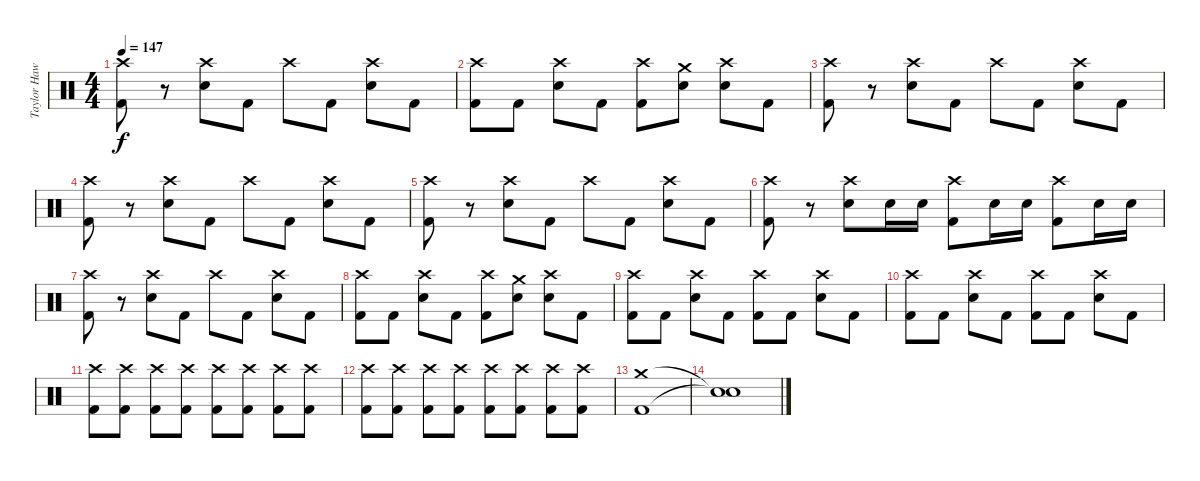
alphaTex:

\track ("Taylor Hawkins - Drums" "Taylor Haw") {instrument percussion}
\staff {score}
\articulation defaults
\ts (4 4)
\tempo 147
\clef neutral
\ks c
("Crash high (hit)" "Kick (hit) 2").8{dy f} r.8 ("Crash high (hit)" "Snare (hit) 2").8 "Kick (hit) 2".8 "Crash high (hit)".8 "Kick (hit) 2".8 ("Crash high (hit)" "Snare (hit) 2").8 "Kick (hit) 2".8 |
("Crash high (hit)" "Kick (hit) 2").8 "Kick (hit) 2".8 ("Crash high (hit)" "Snare (hit) 2").8 "Kick (hit) 2".8 ("Crash high (hit)" "Kick (hit) 2").8 ("Crash medium (hit)" "Snare (hit) 2").8 ("Crash high (hit)" "Snare (hit) 2").8 "Kick (hit) 2".8 |
("Crash high (hit)" "Kick (hit) 2").8 r.8 ("Crash high (hit)" "Snare (hit) 2").8 "Kick (hit) 2".8 "Crash high (hit)".8 "Kick (hit) 2".8 ("Crash high (hit)" "Snare (hit) 2").8 "Kick (hit) 2".8 |
("Crash high (hit)" "Kick (hit) 2").8 r.8 ("Crash high (hit)" "Snare (hit) 2").8 "Kick (hit) 2".8 "Crash high (hit)".8 "Kick (hit) 2".8 ("Crash high (hit)" "Snare (hit) 2").8 "Kick (hit) 2".8 |
("Crash high (hit)" "Kick (hit) 2").8 r.8 ("Crash high (hit)" "Snare (hit) 2").8 "Kick (hit) 2".8 "Crash high (hit)".8 "Kick (hit) 2".8 ("Crash high (hit)" "Snare (hit) 2").8 "Kick (hit) 2".8 |
("Crash high (hit)" "Kick (hit) 2").8 r.8 ("Crash high (hit)" "Snare (hit) 2").8 "Snare (hit) 2".16 "Snare (hit) 2".16 ("Crash high (hit)" "Kick (hit) 2").8 "Snare (hit) 2".16 "Snare (hit) 2".16 ("Crash high (hit)" "Kick (hit) 2").8 "Snare (hit) 2".16 "Snare (hit) 2".16 |
("Crash high (hit)" "Kick (hit) 2").8 r.8 ("Crash high (hit)" "Snare (hit) 2").8 "Kick (hit) 2".8 "Crash high (hit)".8 "Kick (hit) 2".8 ("Crash high (hit)" "Snare (hit) 2").8 "Kick (hit) 2".8 |
("Crash high (hit)" "Kick (hit) 2").8 "Kick (hit) 2".8 ("Crash high (hit)" "Snare (hit) 2").8 "Kick (hit) 2".8 ("Crash high (hit)" "Kick (hit) 2").8 ("Crash medium (hit)" "Snare (hit) 2").8 ("Crash high (hit)" "Snare (hit) 2").8 "Kick (hit) 2".8 |
("Crash high (hit)" "Kick (hit) 2").8 "Kick (hit) 2".8 ("Crash high (hit)" "Snare (hit) 2").8 "Kick (hit) 2".8 ("Crash high (hit)" "Kick (hit) 2").8 "Kick (hit) 2".8 ("Crash high (hit)" "Snare (hit) 2").8 "Kick (hit) 2".8 |
("Crash high (hit)" "Kick (hit) 2").8 "Kick (hit) 2".8 ("Crash high (hit)" "Snare (hit) 2").8 "Kick (hit) 2".8 ("Crash high (hit)" "Kick (hit) 2").8 "Kick (hit) 2".8 ("Crash high (hit)" "Snare (hit) 2").8 "Kick (hit) 2".8 |
("Crash high (hit)" "Kick (hit) 2").8 ("Crash high (hit)" "Kick (hit) 2").8 ("Crash high (hit)" "Kick (hit) 2").8 ("Crash high (hit)" "Kick (hit) 2").8 ("Crash high (hit)" "Kick (hit) 2").8 ("Crash high (hit)" "Kick (hit) 2").8 ("Crash high (hit)" "Kick (hit) 2").8 ("Crash high (hit)" "Kick (hit) 2").8 |
("Crash high (hit)" "Kick (hit) 2").8 ("Crash high (hit)" "Kick (hit) 2").8 ("Crash high (hit)" "Kick (hit) 2").8 ("Crash high (hit)" "Kick (hit) 2").8 ("Crash high (hit)" "Kick (hit) 2").8 ("Crash high (hit)" "Kick (hit) 2").8 ("Crash high (hit)" "Kick (hit) 2").8 ("Crash high (hit)" "Kick (hit) 2").8 |
("Crash medium (hit)" "Kick (hit) 2").1 |
("Snare (hit)"{t} "Snare (hit)"{t}).1
